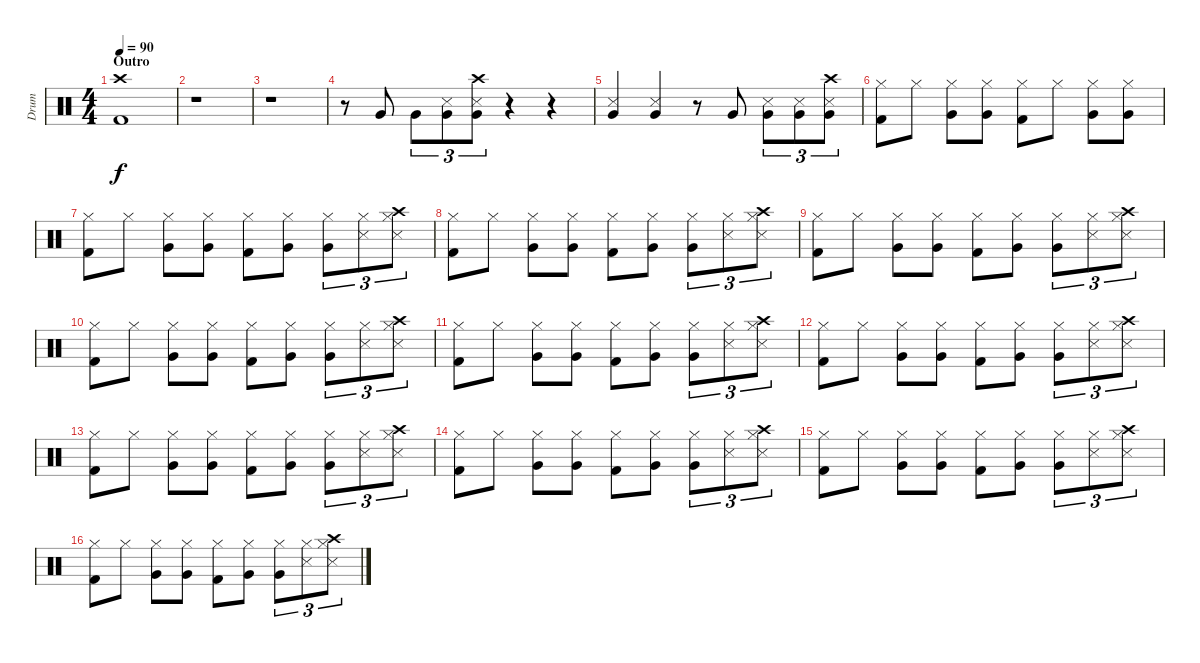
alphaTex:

\track ("Drum" "Drum") {instrument percussion}
\staff {score}
\articulation defaults
\ts (4 4)
\section ("" "Outro")
\tempo 90
\clef neutral
\ks c
("Kick (hit) 2" "Crash high (hit)").1{dy f} |
r.1 |
r.1 |
r.8 "Very Low Tom (hit)".8 "Very Low Tom (hit)".8{tu (3 2)} ("Snare (side stick) 3" "Very Low Tom (hit)").8{tu (3 2)} ("Crash high (hit)" "Snare (side stick) 3" "Very Low Tom (hit)").8{tu (3 2)} r.4 r.4 |
("Snare (side stick) 3" "Very Low Tom (hit)").4 ("Snare (side stick) 3" "Very Low Tom (hit)").4 r.8 "Very Low Tom (hit)".8 ("Snare (side stick) 3" "Very Low Tom (hit)").8{tu (3 2)} ("Snare (side stick) 3" "Very Low Tom (hit)").8{tu (3 2)} ("Crash high (hit)" "Snare (side stick) 3" "Very Low Tom (hit)").8{tu (3 2)} |
("Kick (hit) 2" "Hi-Hat (closed)").8 "Hi-Hat (closed)".8 ("Very Low Tom (hit)" "Hi-Hat (closed)").8 ("Very Low Tom (hit)" "Hi-Hat (closed)").8 ("Kick (hit) 2" "Hi-Hat (closed)").8 "Hi-Hat (closed)".8 ("Very Low Tom (hit)" "Hi-Hat (closed)").8 ("Very Low Tom (hit)" "Hi-Hat (closed)").8 |
("Kick (hit) 2" "Hi-Hat (closed)").8 "Hi-Hat (closed)".8 ("Very Low Tom (hit)" "Hi-Hat (closed)").8 ("Very Low Tom (hit)" "Hi-Hat (closed)").8 ("Kick (hit) 2" "Hi-Hat (closed)").8 ("Very Low Tom (hit)" "Hi-Hat (closed)").8 ("Very Low Tom (hit)" "Hi-Hat (closed)").8{tu (3 2)} ("Snare (side stick) 3" "Hi-Hat (closed)").8{tu (3 2)} ("Crash high (hit)" "Snare (side stick) 3" "Hi-Hat (closed)").8{tu (3 2)} |
("Kick (hit) 2" "Hi-Hat (closed)").8 "Hi-Hat (closed)".8 ("Very Low Tom (hit)" "Hi-Hat (closed)").8 ("Very Low Tom (hit)" "Hi-Hat (closed)").8 ("Kick (hit) 2" "Hi-Hat (closed)").8 ("Very Low Tom (hit)" "Hi-Hat (closed)").8 ("Very Low Tom (hit)" "Hi-Hat (closed)").8{tu (3 2)} ("Snare (side stick) 3" "Hi-Hat (closed)").8{tu (3 2)} ("Crash high (hit)" "Snare (side stick) 3" "Hi-Hat (closed)").8{tu (3 2)} |
("Kick (hit) 2" "Hi-Hat (closed)").8 "Hi-Hat (closed)".8 ("Very Low Tom (hit)" "Hi-Hat (closed)").8 ("Very Low Tom (hit)" "Hi-Hat (closed)").8 ("Kick (hit) 2" "Hi-Hat (closed)").8 ("Very Low Tom (hit)" "Hi-Hat (closed)").8 ("Very Low Tom (hit)" "Hi-Hat (closed)").8{tu (3 2)} ("Snare (side stick) 3" "Hi-Hat (closed)").8{tu (3 2)} ("Crash high (hit)" "Snare (side stick) 3" "Hi-Hat (closed)").8{tu (3 2)} |
("Kick (hit) 2" "Hi-Hat (closed)").8 "Hi-Hat (closed)".8 ("Very Low Tom (hit)" "Hi-Hat (closed)").8 ("Very Low Tom (hit)" "Hi-Hat (closed)").8 ("Kick (hit) 2" "Hi-Hat (closed)").8 ("Very Low Tom (hit)" "Hi-Hat (closed)").8 ("Very Low Tom (hit)" "Hi-Hat (closed)").8{tu (3 2)} ("Snare (side stick) 3" "Hi-Hat (closed)").8{tu (3 2)} ("Crash high (hit)" "Snare (side stick) 3" "Hi-Hat (closed)").8{tu (3 2)} |
("Kick (hit) 2" "Hi-Hat (closed)").8 "Hi-Hat (closed)".8 ("Very Low Tom (hit)" "Hi-Hat (closed)").8 ("Very Low Tom (hit)" "Hi-Hat (closed)").8 ("Kick (hit) 2" "Hi-Hat (closed)").8 ("Very Low Tom (hit)" "Hi-Hat (closed)").8 ("Very Low Tom (hit)" "Hi-Hat (closed)").8{tu (3 2)} ("Snare (side stick) 3" "Hi-Hat (closed)").8{tu (3 2)} ("Crash high (hit)" "Snare (side stick) 3" "Hi-Hat (closed)").8{tu (3 2)} |
("Kick (hit) 2" "Hi-Hat (closed)").8 "Hi-Hat (closed)".8 ("Very Low Tom (hit)" "Hi-Hat (closed)").8 ("Very Low Tom (hit)" "Hi-Hat (closed)").8 ("Kick (hit) 2" "Hi-Hat (closed)").8 ("Very Low Tom (hit)" "Hi-Hat (closed)").8 ("Very Low Tom (hit)" "Hi-Hat (closed)").8{tu (3 2)} ("Snare (side stick) 3" "Hi-Hat (closed)").8{tu (3 2)} ("Crash high (hit)" "Snare (side stick) 3" "Hi-Hat (closed)").8{tu (3 2)} |
("Kick (hit) 2" "Hi-Hat (closed)").8 "Hi-Hat (closed)".8 ("Very Low Tom (hit)" "Hi-Hat (closed)").8 ("Very Low Tom (hit)" "Hi-Hat (closed)").8 ("Kick (hit) 2" "Hi-Hat (closed)").8 ("Very Low Tom (hit)" "Hi-Hat (closed)").8 ("Very Low Tom (hit)" "Hi-Hat (closed)").8{tu (3 2)} ("Snare (side stick) 3" "Hi-Hat (closed)").8{tu (3 2)} ("Crash high (hit)" "Snare (side stick) 3" "Hi-Hat (closed)").8{tu (3 2)} |
("Kick (hit) 2" "Hi-Hat (closed)").8 "Hi-Hat (closed)".8 ("Very Low Tom (hit)" "Hi-Hat (closed)").8 ("Very Low Tom (hit)" "Hi-Hat (closed)").8 ("Kick (hit) 2" "Hi-Hat (closed)").8 ("Very Low Tom (hit)" "Hi-Hat (closed)").8 ("Very Low Tom (hit)" "Hi-Hat (closed)").8{tu (3 2)} ("Snare (side stick) 3" "Hi-Hat (closed)").8{tu (3 2)} ("Crash high (hit)" "Snare (side stick) 3" "Hi-Hat (closed)").8{tu (3 2)} |
("Kick (hit) 2" "Hi-Hat (closed)").8 "Hi-Hat (closed)".8 ("Very Low Tom (hit)" "Hi-Hat (closed)").8 ("Very Low Tom (hit)" "Hi-Hat (closed)").8 ("Kick (hit) 2" "Hi-Hat (closed)").8 ("Very Low Tom (hit)" "Hi-Hat (closed)").8 ("Very Low Tom (hit)" "Hi-Hat (closed)").8{tu (3 2)} ("Snare (side stick) 3" "Hi-Hat (closed)").8{tu (3 2)} ("Crash high (hit)" "Snare (side stick) 3" "Hi-Hat (closed)").8{tu (3 2)} |
("Kick (hit) 2" "Hi-Hat (closed)").8 "Hi-Hat (closed)".8 ("Very Low Tom (hit)" "Hi-Hat (closed)").8 ("Very Low Tom (hit)" "Hi-Hat (closed)").8 ("Kick (hit) 2" "Hi-Hat (closed)").8 ("Very Low Tom (hit)" "Hi-Hat (closed)").8 ("Very Low Tom (hit)" "Hi-Hat (closed)").8{tu (3 2)} ("Snare (side stick) 3" "Hi-Hat (closed)").8{tu (3 2)} ("Crash high (hit)" "Snare (side stick) 3" "Hi-Hat (closed)").8{tu (3 2)}
